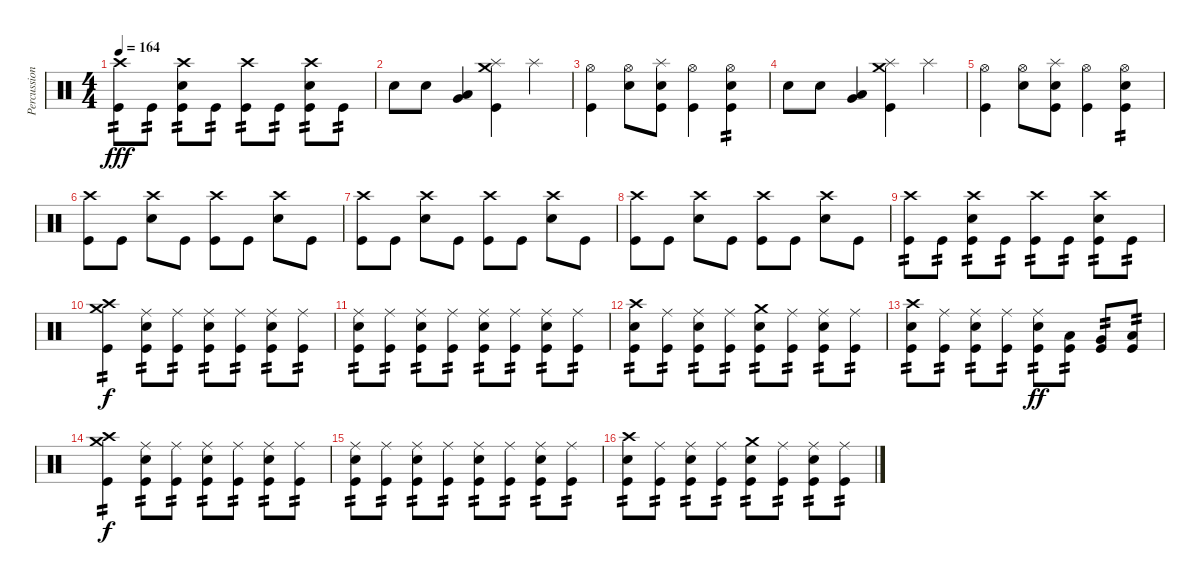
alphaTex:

\track ("Percussion" "Percussion") {instrument percussion}
\staff {score}
\articulation defaults
\ts (4 4)
\tempo 164
\clef neutral
\ks c
("Crash high (hit)" "Kick (hit)").8{tp 2 dy fff} "Kick (hit)".8{tp 2} ("Crash high (hit)" "Electric Snare (hit)" "Kick (hit)").8{tp 2} "Kick (hit)".8{tp 2} ("Crash high (hit)" "Kick (hit)").8{tp 2} "Kick (hit)".8{tp 2} ("Crash high (hit)" "Electric Snare (hit)" "Kick (hit)").8{tp 2} "Kick (hit)".8{tp 2} |
"Electric Snare (hit)".8 "Electric Snare (hit)".8 ("Very Low Tom (hit)" "Low Floor Tom (hit)").4 ("Crash medium (hit)" "Splash (hit)" "Kick (hit)").4 "Splash (hit)".4 |
("Hi-Hat (open)" "Kick (hit)").4 ("Hi-Hat (open)" "Electric Snare (hit)").8 ("Splash (hit)" "Electric Snare (hit)" "Kick (hit)").8 ("Hi-Hat (open)" "Kick (hit)").4 ("Hi-Hat (open)" "Electric Snare (hit)" "Kick (hit)").4{tp 2} |
"Electric Snare (hit)".8 "Electric Snare (hit)".8 ("Very Low Tom (hit)" "Low Floor Tom (hit)").4 ("Crash medium (hit)" "Splash (hit)" "Kick (hit)").4 "Splash (hit)".4 |
("Hi-Hat (open)" "Kick (hit)").4 ("Hi-Hat (open)" "Electric Snare (hit)").8 ("Splash (hit)" "Electric Snare (hit)" "Kick (hit)").8 ("Hi-Hat (open)" "Kick (hit)").4 ("Hi-Hat (open)" "Electric Snare (hit)" "Kick (hit)").4{tp 2} |
("Crash high (hit)" "Kick (hit)").8 "Kick (hit)".8 ("Crash high (hit)" "Electric Snare (hit)").8 "Kick (hit)".8 ("Crash high (hit)" "Kick (hit)").8 "Kick (hit)".8 ("Crash high (hit)" "Electric Snare (hit)").8 "Kick (hit)".8 |
("Crash high (hit)" "Kick (hit)").8 "Kick (hit)".8 ("Crash high (hit)" "Electric Snare (hit)").8 "Kick (hit)".8 ("Crash high (hit)" "Kick (hit)").8 "Kick (hit)".8 ("Crash high (hit)" "Electric Snare (hit)").8 "Kick (hit)".8 |
("Crash high (hit)" "Kick (hit)").8 "Kick (hit)".8 ("Crash high (hit)" "Electric Snare (hit)").8 "Kick (hit)".8 ("Crash high (hit)" "Kick (hit)").8 "Kick (hit)".8 ("Crash high (hit)" "Electric Snare (hit)").8 "Kick (hit)".8 |
("Crash high (hit)" "Kick (hit)").8{tp 2} "Kick (hit)".8{tp 2} ("Crash high (hit)" "Electric Snare (hit)" "Kick (hit)").8{tp 2} "Kick (hit)".8{tp 2} ("Crash high (hit)" "Kick (hit)").8{tp 2} "Kick (hit)".8{tp 2} ("Crash high (hit)" "Electric Snare (hit)" "Kick (hit)").8{tp 2} "Kick (hit)".8{tp 2} |
("Crash medium (hit)" "Crash high (hit)" "Kick (hit)").4{tp 2 dy f} ("Ride (middle)" "Electric Snare (hit)" "Kick (hit)").8{tp 2} ("Ride (middle)" "Kick (hit)").8{tp 2} ("Ride (middle)" "Electric Snare (hit)" "Kick (hit)").8{tp 2} ("Ride (middle)" "Kick (hit)").8{tp 2} ("Ride (middle)" "Electric Snare (hit)" "Kick (hit)").8{tp 2} ("Ride (middle)" "Kick (hit)").8{tp 2} |
("Ride (middle)" "Electric Snare (hit)" "Kick (hit)").8{tp 2} ("Ride (middle)" "Kick (hit)").8{tp 2} ("Ride (middle)" "Electric Snare (hit)" "Kick (hit)").8{tp 2} ("Ride (middle)" "Kick (hit)").8{tp 2} ("Ride (middle)" "Electric Snare (hit)" "Kick (hit)").8{tp 2} ("Ride (middle)" "Kick (hit)").8{tp 2} ("Ride (middle)" "Electric Snare (hit)" "Kick (hit)").8{tp 2} ("Ride (middle)" "Kick (hit)").8{tp 2} |
("Crash high (hit)" "Electric Snare (hit)" "Kick (hit)").8{tp 2} ("Ride (middle)" "Kick (hit)").8{tp 2} ("Ride (middle)" "Electric Snare (hit)" "Kick (hit)").8{tp 2} ("Ride (middle)" "Kick (hit)").8{tp 2} ("Crash medium (hit)" "Electric Snare (hit)" "Kick (hit)").8{tp 2} ("Ride (middle)" "Kick (hit)").8{tp 2} ("Ride (middle)" "Electric Snare (hit)" "Kick (hit)").8{tp 2} ("Ride (middle)" "Kick (hit)").8{tp 2} |
("Crash high (hit)" "Electric Snare (hit)" "Kick (hit)").8{tp 2} ("Ride (middle)" "Kick (hit)").8{tp 2} ("Ride (middle)" "Electric Snare (hit)" "Kick (hit)").8{tp 2} ("Ride (middle)" "Kick (hit)").8{tp 2} ("Ride (middle)" "Electric Snare (hit)" "Kick (hit)").8{tp 2 dy ff} ("Low Tom (hit)" "Kick (hit)").8{tp 2} ("Very Low Tom (hit)" "Kick (hit)").8{tp 2} ("Low Floor Tom (hit)" "Kick (hit)").8{tp 2} |
("Crash medium (hit)" "Crash high (hit)" "Kick (hit)").4{tp 2 dy f} ("Ride (middle)" "Electric Snare (hit)" "Kick (hit)").8{tp 2} ("Ride (middle)" "Kick (hit)").8{tp 2} ("Ride (middle)" "Electric Snare (hit)" "Kick (hit)").8{tp 2} ("Ride (middle)" "Kick (hit)").8{tp 2} ("Ride (middle)" "Electric Snare (hit)" "Kick (hit)").8{tp 2} ("Ride (middle)" "Kick (hit)").8{tp 2} |
("Ride (middle)" "Electric Snare (hit)" "Kick (hit)").8{tp 2} ("Ride (middle)" "Kick (hit)").8{tp 2} ("Ride (middle)" "Electric Snare (hit)" "Kick (hit)").8{tp 2} ("Ride (middle)" "Kick (hit)").8{tp 2} ("Ride (middle)" "Electric Snare (hit)" "Kick (hit)").8{tp 2} ("Ride (middle)" "Kick (hit)").8{tp 2} ("Ride (middle)" "Electric Snare (hit)" "Kick (hit)").8{tp 2} ("Ride (middle)" "Kick (hit)").8{tp 2} |
("Crash high (hit)" "Electric Snare (hit)" "Kick (hit)").8{tp 2} ("Ride (middle)" "Kick (hit)").8{tp 2} ("Ride (middle)" "Electric Snare (hit)" "Kick (hit)").8{tp 2} ("Ride (middle)" "Kick (hit)").8{tp 2} ("Crash medium (hit)" "Electric Snare (hit)" "Kick (hit)").8{tp 2} ("Ride (middle)" "Kick (hit)").8{tp 2} ("Ride (middle)" "Electric Snare (hit)" "Kick (hit)").8{tp 2} ("Ride (middle)" "Kick (hit)").8{tp 2}
